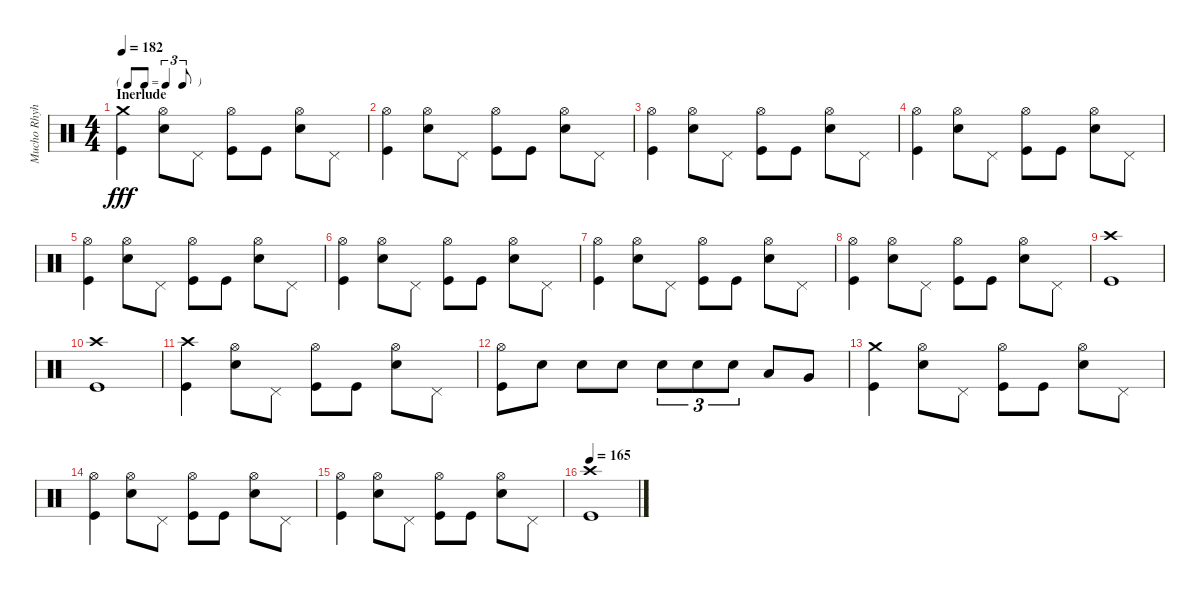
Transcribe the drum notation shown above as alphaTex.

\track ("Mucho Rhyhtm" "Mucho Rhyh") {instrument percussion}
\staff {score}
\articulation defaults
\ts (4 4)
\tf triplet8th
\section ("" "Inerlude")
\tempo 182
\clef neutral
\ks c
("Crash medium (hit)" "Kick (hit)").4{dy fff} ("Hi-Hat (open)" "Snare (hit) 2").8 "Pedal Hi-Hat (hit)".8 ("Hi-Hat (open)" "Kick (hit)").8 "Kick (hit)".8 ("Hi-Hat (open)" "Snare (hit) 2").8 "Pedal Hi-Hat (hit)".8 |
("Hi-Hat (open)" "Kick (hit)").4 ("Hi-Hat (open)" "Snare (hit) 2").8 "Pedal Hi-Hat (hit)".8 ("Hi-Hat (open)" "Kick (hit)").8 "Kick (hit)".8 ("Hi-Hat (open)" "Snare (hit) 2").8 "Pedal Hi-Hat (hit)".8 |
("Hi-Hat (open)" "Kick (hit)").4 ("Hi-Hat (open)" "Snare (hit) 2").8 "Pedal Hi-Hat (hit)".8 ("Hi-Hat (open)" "Kick (hit)").8 "Kick (hit)".8 ("Hi-Hat (open)" "Snare (hit) 2").8 "Pedal Hi-Hat (hit)".8 |
("Hi-Hat (open)" "Kick (hit)").4 ("Hi-Hat (open)" "Snare (hit) 2").8 "Pedal Hi-Hat (hit)".8 ("Hi-Hat (open)" "Kick (hit)").8 "Kick (hit)".8 ("Hi-Hat (open)" "Snare (hit) 2").8 "Pedal Hi-Hat (hit)".8 |
("Hi-Hat (open)" "Kick (hit)").4 ("Hi-Hat (open)" "Snare (hit) 2").8 "Pedal Hi-Hat (hit)".8 ("Hi-Hat (open)" "Kick (hit)").8 "Kick (hit)".8 ("Hi-Hat (open)" "Snare (hit) 2").8 "Pedal Hi-Hat (hit)".8 |
("Hi-Hat (open)" "Kick (hit)").4 ("Hi-Hat (open)" "Snare (hit) 2").8 "Pedal Hi-Hat (hit)".8 ("Hi-Hat (open)" "Kick (hit)").8 "Kick (hit)".8 ("Hi-Hat (open)" "Snare (hit) 2").8 "Pedal Hi-Hat (hit)".8 |
("Hi-Hat (open)" "Kick (hit)").4 ("Hi-Hat (open)" "Snare (hit) 2").8 "Pedal Hi-Hat (hit)".8 ("Hi-Hat (open)" "Kick (hit)").8 "Kick (hit)".8 ("Hi-Hat (open)" "Snare (hit) 2").8 "Pedal Hi-Hat (hit)".8 |
("Hi-Hat (open)" "Kick (hit)").4 ("Hi-Hat (open)" "Snare (hit) 2").8 "Pedal Hi-Hat (hit)".8 ("Hi-Hat (open)" "Kick (hit)").8 "Kick (hit)".8 ("Hi-Hat (open)" "Snare (hit) 2").8 "Pedal Hi-Hat (hit)".8 |
("Crash high (hit)" "Kick (hit)").1 |
("Crash high (hit)" "Kick (hit)").1 |
("Crash high (hit)" "Kick (hit)").4 ("Hi-Hat (open)" "Snare (hit) 2").8 "Pedal Hi-Hat (hit)".8 ("Hi-Hat (open)" "Kick (hit)").8 "Kick (hit)".8 ("Hi-Hat (open)" "Snare (hit) 2").8 "Pedal Hi-Hat (hit)".8 |
("Hi-Hat (open)" "Kick (hit)").8 "Snare (hit) 2".8 "Snare (hit) 2".8 "Snare (hit) 2".8 "Snare (hit) 2".8{tu (3 2)} "Snare (hit) 2".8{tu (3 2)} "Snare (hit) 2".8{tu (3 2)} "Low Tom (hit)".8 "Very Low Tom (hit)".8 |
("Crash medium (hit)" "Kick (hit)").4 ("Hi-Hat (open)" "Snare (hit) 2").8 "Pedal Hi-Hat (hit)".8 ("Hi-Hat (open)" "Kick (hit)").8 "Kick (hit)".8 ("Hi-Hat (open)" "Snare (hit) 2").8 "Pedal Hi-Hat (hit)".8 |
("Hi-Hat (open)" "Kick (hit)").4 ("Hi-Hat (open)" "Snare (hit) 2").8 "Pedal Hi-Hat (hit)".8 ("Hi-Hat (open)" "Kick (hit)").8 "Kick (hit)".8 ("Hi-Hat (open)" "Snare (hit) 2").8 "Pedal Hi-Hat (hit)".8 |
("Hi-Hat (open)" "Kick (hit)").4 ("Hi-Hat (open)" "Snare (hit) 2").8 "Pedal Hi-Hat (hit)".8 ("Hi-Hat (open)" "Kick (hit)").8 "Kick (hit)".8 ("Hi-Hat (open)" "Snare (hit) 2").8 "Pedal Hi-Hat (hit)".8 |
\tempo 165
("Crash high (hit)" "Kick (hit)").1
